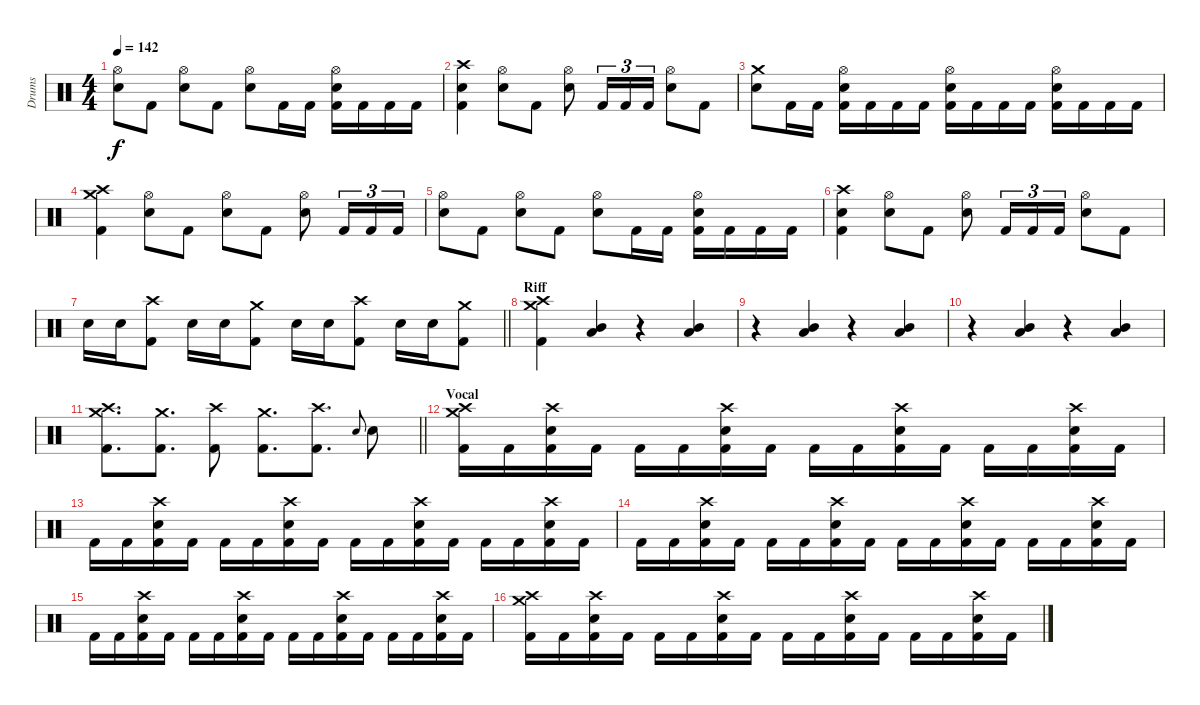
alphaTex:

\track ("Drums" "Drums") {instrument percussion}
\staff {score}
\articulation defaults
\ts (4 4)
\tempo 142
\clef neutral
\ks c
("Hi-Hat (open)" "Electric Snare (hit)").8{dy f} "Kick (hit) 2".8 ("Hi-Hat (open)" "Electric Snare (hit)").8 "Kick (hit) 2".8 ("Hi-Hat (open)" "Electric Snare (hit)").8 "Kick (hit) 2".16 "Kick (hit) 2".16 ("Hi-Hat (open)" "Electric Snare (hit)" "Kick (hit) 2").16 "Kick (hit) 2".16 "Kick (hit) 2".16 "Kick (hit) 2".16 |
("Crash high (hit)" "Electric Snare (hit)" "Kick (hit) 2").4 ("Hi-Hat (open)" "Electric Snare (hit)").8 "Kick (hit) 2".8 ("Hi-Hat (open)" "Electric Snare (hit)").8 "Kick (hit) 2".16{tu (3 2)} "Kick (hit) 2".16{tu (3 2)} "Kick (hit) 2".16{tu (3 2)} ("Hi-Hat (open)" "Electric Snare (hit)").8 "Kick (hit) 2".8 |
("Crash medium (hit)" "Electric Snare (hit)").8 "Kick (hit) 2".16 "Kick (hit) 2".16 ("Hi-Hat (open)" "Electric Snare (hit)" "Kick (hit) 2").16 "Kick (hit) 2".16 "Kick (hit) 2".16 "Kick (hit) 2".16 ("Hi-Hat (open)" "Electric Snare (hit)" "Kick (hit) 2").16 "Kick (hit) 2".16 "Kick (hit) 2".16 "Kick (hit) 2".16 ("Hi-Hat (open)" "Electric Snare (hit)" "Kick (hit) 2").16 "Kick (hit) 2".16 "Kick (hit) 2".16 "Kick (hit) 2".16 |
("Crash high (hit)" "Crash medium (hit)" "Kick (hit) 2").4 ("Hi-Hat (open)" "Electric Snare (hit)").8 "Kick (hit) 2".8 ("Hi-Hat (open)" "Electric Snare (hit)").8 "Kick (hit) 2".8 ("Hi-Hat (open)" "Electric Snare (hit)").8 "Kick (hit) 2".16{tu (3 2)} "Kick (hit) 2".16{tu (3 2)} "Kick (hit) 2".16{tu (3 2)} |
("Hi-Hat (open)" "Electric Snare (hit)").8 "Kick (hit) 2".8 ("Hi-Hat (open)" "Electric Snare (hit)").8 "Kick (hit) 2".8 ("Hi-Hat (open)" "Electric Snare (hit)").8 "Kick (hit) 2".16 "Kick (hit) 2".16 ("Hi-Hat (open)" "Electric Snare (hit)" "Kick (hit) 2").16 "Kick (hit) 2".16 "Kick (hit) 2".16 "Kick (hit) 2".16 |
("Crash high (hit)" "Electric Snare (hit)" "Kick (hit) 2").4 ("Hi-Hat (open)" "Electric Snare (hit)").8 "Kick (hit) 2".8 ("Hi-Hat (open)" "Electric Snare (hit)").8 "Kick (hit) 2".16{tu (3 2)} "Kick (hit) 2".16{tu (3 2)} "Kick (hit) 2".16{tu (3 2)} ("Hi-Hat (open)" "Electric Snare (hit)").8 "Kick (hit) 2".8 |
\barLineRight lightlight "Electric Snare (hit)".16 "Electric Snare (hit)".16
("Crash high (hit)" "Kick (hit) 2").8 "Electric Snare (hit)".16 "Electric Snare (hit)".16 ("Crash medium (hit)" "Kick (hit) 2").8 "Electric Snare (hit)".16 "Electric Snare (hit)".16 ("Crash high (hit)" "Kick (hit) 2").8 "Electric Snare (hit)".16 "Electric Snare (hit)".16 ("Crash medium (hit)" "Kick (hit) 2").8 |
\section ("" "Riff")
("Crash high (hit)" "Crash medium (hit)" "Kick (hit) 2").4 ("Mid Tom (hit)" "Low Floor Tom (hit)").4 r.4 ("Mid Tom (hit)" "Low Floor Tom (hit)").4 |
r.4 ("Mid Tom (hit)" "Low Floor Tom (hit)").4 r.4 ("Mid Tom (hit)" "Low Floor Tom (hit)").4 |
r.4 ("Mid Tom (hit)" "Low Floor Tom (hit)").4 r.4 ("Mid Tom (hit)" "Low Floor Tom (hit)").4 |
\barLineRight lightlight
("Crash high (hit)" "Crash medium (hit)" "Kick (hit) 2").8{d} ("Crash medium (hit)" "Kick (hit) 2").8{d} ("Crash high (hit)" "Kick (hit) 2").8 ("Crash medium (hit)" "Kick (hit) 2").8{d} ("Crash high (hit)" "Kick (hit) 2").8{d} "Electric Snare (hit)".8{gr onbeat} "Electric Snare (hit)".8 |
\section ("" "Vocal")
("Crash high (hit)" "Crash medium (hit)" "Kick (hit) 2").16 "Kick (hit) 2".16 ("Crash high (hit)" "Electric Snare (hit)" "Kick (hit) 2").16 "Kick (hit) 2".16 "Kick (hit) 2".16 "Kick (hit) 2".16 ("Crash high (hit)" "Electric Snare (hit)" "Kick (hit) 2").16 "Kick (hit) 2".16 "Kick (hit) 2".16 "Kick (hit) 2".16 ("Crash high (hit)" "Electric Snare (hit)" "Kick (hit) 2").16 "Kick (hit) 2".16 "Kick (hit) 2".16 "Kick (hit) 2".16 ("Crash high (hit)" "Electric Snare (hit)" "Kick (hit) 2").16 "Kick (hit) 2".16 |
"Kick (hit) 2".16 "Kick (hit) 2".16 ("Crash high (hit)" "Electric Snare (hit)" "Kick (hit) 2").16 "Kick (hit) 2".16 "Kick (hit) 2".16 "Kick (hit) 2".16 ("Crash high (hit)" "Electric Snare (hit)" "Kick (hit) 2").16 "Kick (hit) 2".16 "Kick (hit) 2".16 "Kick (hit) 2".16 ("Crash high (hit)" "Electric Snare (hit)" "Kick (hit) 2").16 "Kick (hit) 2".16 "Kick (hit) 2".16 "Kick (hit) 2".16 ("Crash high (hit)" "Electric Snare (hit)" "Kick (hit) 2").16 "Kick (hit) 2".16 |
"Kick (hit) 2".16 "Kick (hit) 2".16 ("Crash high (hit)" "Electric Snare (hit)" "Kick (hit) 2").16 "Kick (hit) 2".16 "Kick (hit) 2".16 "Kick (hit) 2".16 ("Crash high (hit)" "Electric Snare (hit)" "Kick (hit) 2").16 "Kick (hit) 2".16 "Kick (hit) 2".16 "Kick (hit) 2".16 ("Crash high (hit)" "Electric Snare (hit)" "Kick (hit) 2").16 "Kick (hit) 2".16 "Kick (hit) 2".16 "Kick (hit) 2".16 ("Crash high (hit)" "Electric Snare (hit)" "Kick (hit) 2").16 "Kick (hit) 2".16 |
"Kick (hit) 2".16 "Kick (hit) 2".16 ("Crash high (hit)" "Electric Snare (hit)" "Kick (hit) 2").16 "Kick (hit) 2".16 "Kick (hit) 2".16 "Kick (hit) 2".16 ("Crash high (hit)" "Electric Snare (hit)" "Kick (hit) 2").16 "Kick (hit) 2".16 "Kick (hit) 2".16 "Kick (hit) 2".16 ("Crash high (hit)" "Electric Snare (hit)" "Kick (hit) 2").16 "Kick (hit) 2".16 "Kick (hit) 2".16 "Kick (hit) 2".16 ("Crash high (hit)" "Electric Snare (hit)" "Kick (hit) 2").16 "Kick (hit) 2".16 |
("Crash high (hit)" "Crash medium (hit)" "Kick (hit) 2").16 "Kick (hit) 2".16 ("Crash high (hit)" "Electric Snare (hit)" "Kick (hit) 2").16 "Kick (hit) 2".16 "Kick (hit) 2".16 "Kick (hit) 2".16 ("Crash high (hit)" "Electric Snare (hit)" "Kick (hit) 2").16 "Kick (hit) 2".16 "Kick (hit) 2".16 "Kick (hit) 2".16 ("Crash high (hit)" "Electric Snare (hit)" "Kick (hit) 2").16 "Kick (hit) 2".16 "Kick (hit) 2".16 "Kick (hit) 2".16 ("Crash high (hit)" "Electric Snare (hit)" "Kick (hit) 2").16 "Kick (hit) 2".16
